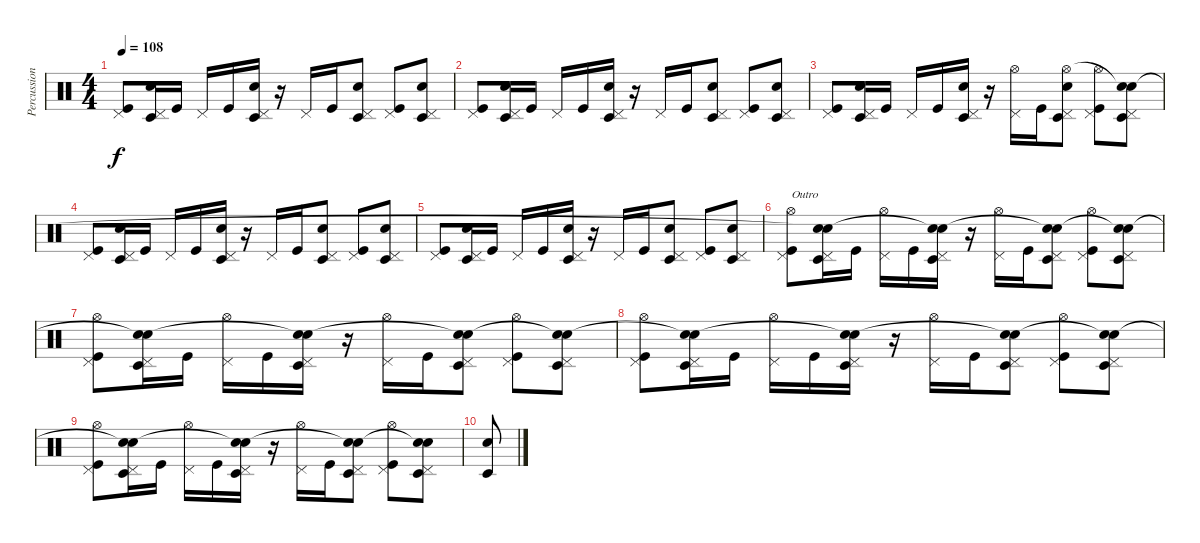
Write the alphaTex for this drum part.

\track ("Percussion" "Percussion") {instrument percussion}
\staff {score}
\articulation defaults
\ts (4 4)
\tempo 108
\clef neutral
\ks c
("Pedal Hi-Hat (hit)" "Kick (hit)").8{dy f} ("Pedal Hi-Hat (hit)" "Electric Snare (hit)" "Timbale low (hit)").16 "Kick (hit)".16 "Pedal Hi-Hat (hit)".16 "Kick (hit)".16 ("Pedal Hi-Hat (hit)" "Timbale low (hit)" "Electric Snare (hit)").16 r.16 "Pedal Hi-Hat (hit)".16 "Kick (hit)".16 ("Pedal Hi-Hat (hit)" "Electric Snare (hit)" "Timbale low (hit)").8 ("Pedal Hi-Hat (hit)" "Kick (hit)").8 ("Pedal Hi-Hat (hit)" "Electric Snare (hit)" "Timbale low (hit)").8 |
("Pedal Hi-Hat (hit)" "Kick (hit)").8 ("Pedal Hi-Hat (hit)" "Electric Snare (hit)" "Timbale low (hit)").16 "Kick (hit)".16 "Pedal Hi-Hat (hit)".16 "Kick (hit)".16 ("Pedal Hi-Hat (hit)" "Timbale low (hit)" "Electric Snare (hit)").16 r.16 "Pedal Hi-Hat (hit)".16 "Kick (hit)".16 ("Pedal Hi-Hat (hit)" "Electric Snare (hit)" "Timbale low (hit)").8 ("Pedal Hi-Hat (hit)" "Kick (hit)").8 ("Pedal Hi-Hat (hit)" "Electric Snare (hit)" "Timbale low (hit)").8 |
("Pedal Hi-Hat (hit)" "Kick (hit)").8 ("Pedal Hi-Hat (hit)" "Electric Snare (hit)" "Timbale low (hit)").16 "Kick (hit)".16 "Pedal Hi-Hat (hit)".16 "Kick (hit)".16 ("Pedal Hi-Hat (hit)" "Timbale low (hit)" "Electric Snare (hit)").16 r.16 ("Pedal Hi-Hat (hit)" "Hi-Hat (open)").16 "Kick (hit)".16 ("Pedal Hi-Hat (hit)" "Electric Snare (hit)" "Timbale low (hit)" "Hi-Hat (open)").8 ("Pedal Hi-Hat (hit)" "Hi-Hat (open)" "Kick (hit)").8 ("Pedal Hi-Hat (hit)" "Electric Snare (hit)" "Timbale low (hit)" "Snare (hit)"{t}).8 |
("Pedal Hi-Hat (hit)" "Kick (hit)").8 ("Pedal Hi-Hat (hit)" "Electric Snare (hit)" "Timbale low (hit)").16 "Kick (hit)".16 "Pedal Hi-Hat (hit)".16 "Kick (hit)".16 ("Pedal Hi-Hat (hit)" "Timbale low (hit)" "Electric Snare (hit)").16 r.16 "Pedal Hi-Hat (hit)".16 "Kick (hit)".16 ("Pedal Hi-Hat (hit)" "Electric Snare (hit)" "Timbale low (hit)").8 ("Pedal Hi-Hat (hit)" "Kick (hit)").8 ("Pedal Hi-Hat (hit)" "Electric Snare (hit)" "Timbale low (hit)").8 |
("Pedal Hi-Hat (hit)" "Kick (hit)").8 ("Pedal Hi-Hat (hit)" "Electric Snare (hit)" "Timbale low (hit)").16 "Kick (hit)".16 "Pedal Hi-Hat (hit)".16 "Kick (hit)".16 ("Pedal Hi-Hat (hit)" "Timbale low (hit)" "Electric Snare (hit)").16 r.16 "Pedal Hi-Hat (hit)".16 "Kick (hit)".16 ("Pedal Hi-Hat (hit)" "Electric Snare (hit)" "Timbale low (hit)").8 ("Pedal Hi-Hat (hit)" "Kick (hit)").8 ("Pedal Hi-Hat (hit)" "Electric Snare (hit)" "Timbale low (hit)").8 |
("Pedal Hi-Hat (hit)" "Hi-Hat (open)" "Kick (hit)").8{txt "Outro"} ("Pedal Hi-Hat (hit)" "Electric Snare (hit)" "Timbale low (hit)" "Snare (hit)"{t}).16 "Kick (hit)".16 ("Pedal Hi-Hat (hit)" "Hi-Hat (open)").16 "Kick (hit)".16 ("Pedal Hi-Hat (hit)" "Timbale low (hit)" "Electric Snare (hit)" "Snare (hit)"{t}).16 r.16 ("Pedal Hi-Hat (hit)" "Hi-Hat (open)").16 "Kick (hit)".16 ("Pedal Hi-Hat (hit)" "Electric Snare (hit)" "Timbale low (hit)" "Snare (hit)"{t}).8 ("Pedal Hi-Hat (hit)" "Hi-Hat (open)" "Kick (hit)").8 ("Pedal Hi-Hat (hit)" "Electric Snare (hit)" "Timbale low (hit)" "Snare (hit)"{t}).8 |
("Pedal Hi-Hat (hit)" "Hi-Hat (open)" "Kick (hit)").8 ("Pedal Hi-Hat (hit)" "Electric Snare (hit)" "Timbale low (hit)" "Snare (hit)"{t}).16 "Kick (hit)".16 ("Pedal Hi-Hat (hit)" "Hi-Hat (open)").16 "Kick (hit)".16 ("Pedal Hi-Hat (hit)" "Timbale low (hit)" "Electric Snare (hit)" "Snare (hit)"{t}).16 r.16 ("Pedal Hi-Hat (hit)" "Hi-Hat (open)").16 "Kick (hit)".16 ("Pedal Hi-Hat (hit)" "Electric Snare (hit)" "Timbale low (hit)" "Snare (hit)"{t}).8 ("Pedal Hi-Hat (hit)" "Hi-Hat (open)" "Kick (hit)").8 ("Pedal Hi-Hat (hit)" "Electric Snare (hit)" "Timbale low (hit)" "Snare (hit)"{t}).8 |
("Pedal Hi-Hat (hit)" "Hi-Hat (open)" "Kick (hit)").8 ("Pedal Hi-Hat (hit)" "Electric Snare (hit)" "Timbale low (hit)" "Snare (hit)"{t}).16 "Kick (hit)".16 ("Pedal Hi-Hat (hit)" "Hi-Hat (open)").16 "Kick (hit)".16 ("Pedal Hi-Hat (hit)" "Timbale low (hit)" "Electric Snare (hit)" "Snare (hit)"{t}).16 r.16 ("Pedal Hi-Hat (hit)" "Hi-Hat (open)").16 "Kick (hit)".16 ("Pedal Hi-Hat (hit)" "Electric Snare (hit)" "Timbale low (hit)" "Snare (hit)"{t}).8 ("Pedal Hi-Hat (hit)" "Hi-Hat (open)" "Kick (hit)").8 ("Pedal Hi-Hat (hit)" "Electric Snare (hit)" "Timbale low (hit)" "Snare (hit)"{t}).8 |
("Pedal Hi-Hat (hit)" "Hi-Hat (open)" "Kick (hit)").8 ("Pedal Hi-Hat (hit)" "Electric Snare (hit)" "Timbale low (hit)" "Snare (hit)"{t}).16 "Kick (hit)".16 ("Pedal Hi-Hat (hit)" "Hi-Hat (open)").16 "Kick (hit)".16 ("Pedal Hi-Hat (hit)" "Timbale low (hit)" "Electric Snare (hit)" "Snare (hit)"{t}).16 r.16 ("Pedal Hi-Hat (hit)" "Hi-Hat (open)").16 "Kick (hit)".16 ("Pedal Hi-Hat (hit)" "Electric Snare (hit)" "Timbale low (hit)" "Snare (hit)"{t}).8 ("Pedal Hi-Hat (hit)" "Hi-Hat (open)" "Kick (hit)").8 ("Pedal Hi-Hat (hit)" "Electric Snare (hit)" "Timbale low (hit)" "Snare (hit)"{t}).8 |
("Timbale low (hit)" "Electric Snare (hit)").8
